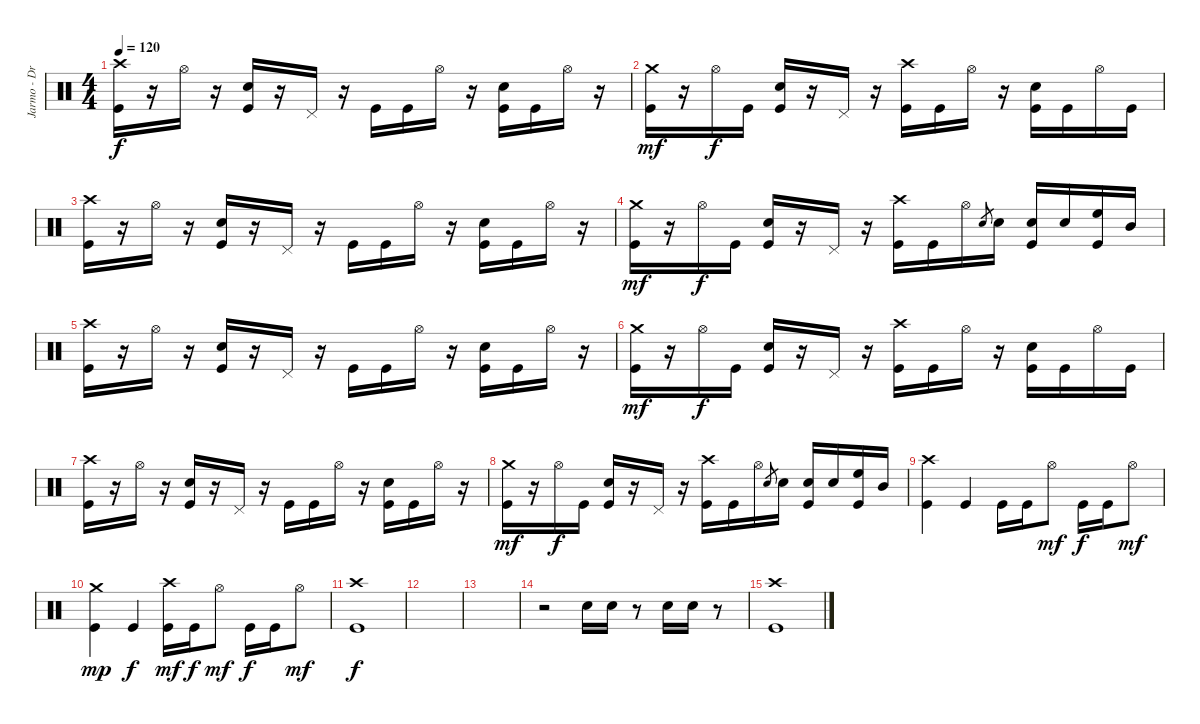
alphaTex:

\track ("Jarmo - Drums" "Jarmo - Dr") {instrument percussion}
\staff {score}
\articulation defaults
\ts (4 4)
\tempo 120
\clef neutral
\ks c
("Kick (hit)" "Crash high (hit)").16{dy f} r.16 "Hi-Hat (open)".16 r.16 ("Kick (hit)" "Electric Snare (hit)").16 r.16 "Pedal Hi-Hat (hit)".16 r.16 "Kick (hit)".16 "Kick (hit)".16 "Hi-Hat (open)".16 r.16 ("Kick (hit)" "Electric Snare (hit)").16 "Kick (hit)".16 "Hi-Hat (open)".16 r.16 |
("Kick (hit)" "Crash medium (hit)").16{dy mf} r.16 "Hi-Hat (open)".16{dy f} "Kick (hit)".16 ("Kick (hit)" "Electric Snare (hit)").16 r.16 "Pedal Hi-Hat (hit)".16 r.16 ("Kick (hit)" "Crash high (hit)").16 "Kick (hit)".16 "Hi-Hat (open)".16 r.16 ("Kick (hit)" "Electric Snare (hit)").16 "Kick (hit)".16 "Hi-Hat (open)".16 "Kick (hit)".16 |
("Kick (hit)" "Crash high (hit)").16 r.16 "Hi-Hat (open)".16 r.16 ("Kick (hit)" "Electric Snare (hit)").16 r.16 "Pedal Hi-Hat (hit)".16 r.16 "Kick (hit)".16 "Kick (hit)".16 "Hi-Hat (open)".16 r.16 ("Kick (hit)" "Electric Snare (hit)").16 "Kick (hit)".16 "Hi-Hat (open)".16 r.16 |
("Kick (hit)" "Crash medium (hit)").16{dy mf} r.16 "Hi-Hat (open)".16{dy f} "Kick (hit)".16 ("Kick (hit)" "Electric Snare (hit)").16 r.16 "Pedal Hi-Hat (hit)".16 r.16 ("Kick (hit)" "Crash high (hit)").16 "Kick (hit)".16 "Hi-Hat (open)".16 "Snare (hit) 2".8{gr} "Electric Snare (hit)".16 ("Kick (hit)" "Electric Snare (hit)").16 "Electric Snare (hit)".16 ("Kick (hit)" "High Floor Tom (hit)").16 "Mid Tom (hit)".16 |
("Kick (hit)" "Crash high (hit)").16 r.16 "Hi-Hat (open)".16 r.16 ("Kick (hit)" "Electric Snare (hit)").16 r.16 "Pedal Hi-Hat (hit)".16 r.16 "Kick (hit)".16 "Kick (hit)".16 "Hi-Hat (open)".16 r.16 ("Kick (hit)" "Electric Snare (hit)").16 "Kick (hit)".16 "Hi-Hat (open)".16 r.16 |
("Kick (hit)" "Crash medium (hit)").16{dy mf} r.16 "Hi-Hat (open)".16{dy f} "Kick (hit)".16 ("Kick (hit)" "Electric Snare (hit)").16 r.16 "Pedal Hi-Hat (hit)".16 r.16 ("Kick (hit)" "Crash high (hit)").16 "Kick (hit)".16 "Hi-Hat (open)".16 r.16 ("Kick (hit)" "Electric Snare (hit)").16 "Kick (hit)".16 "Hi-Hat (open)".16 "Kick (hit)".16 |
("Kick (hit)" "Crash high (hit)").16 r.16 "Hi-Hat (open)".16 r.16 ("Kick (hit)" "Electric Snare (hit)").16 r.16 "Pedal Hi-Hat (hit)".16 r.16 "Kick (hit)".16 "Kick (hit)".16 "Hi-Hat (open)".16 r.16 ("Kick (hit)" "Electric Snare (hit)").16 "Kick (hit)".16 "Hi-Hat (open)".16 r.16 |
("Kick (hit)" "Crash medium (hit)").16{dy mf} r.16 "Hi-Hat (open)".16{dy f} "Kick (hit)".16 ("Kick (hit)" "Electric Snare (hit)").16 r.16 "Pedal Hi-Hat (hit)".16 r.16 ("Kick (hit)" "Crash high (hit)").16 "Kick (hit)".16 "Hi-Hat (open)".16 "Snare (hit) 2".8{gr} "Electric Snare (hit)".16 ("Kick (hit)" "Electric Snare (hit)").16 "Electric Snare (hit)".16 ("Kick (hit)" "High Floor Tom (hit)").16 "Mid Tom (hit)".16 |
("Kick (hit)" "Crash high (hit)").4 "Kick (hit)".4 "Kick (hit)".16 "Kick (hit)".16 "Hi-Hat (open)".8{dy mf} "Kick (hit)".16{dy f} "Kick (hit)".16 "Hi-Hat (open)".8{dy mf} |
("Kick (hit)" "Crash medium (hit)").4{dy mp} "Kick (hit)".4{dy f} ("Kick (hit)" "Crash high (hit)").16{dy mf} "Kick (hit)".16{dy f} "Hi-Hat (open)".8{dy mf} "Kick (hit)".16{dy f} "Kick (hit)".16 "Hi-Hat (open)".8{dy mf} |
("Kick (hit)" "Crash high (hit)").1{dy f} |
|
|
r.2 "Electric Snare (hit)".16 "Electric Snare (hit)".16 r.8 "Electric Snare (hit)".16 "Electric Snare (hit)".16 r.8 |
("Kick (hit)" "Crash high (hit)").1
